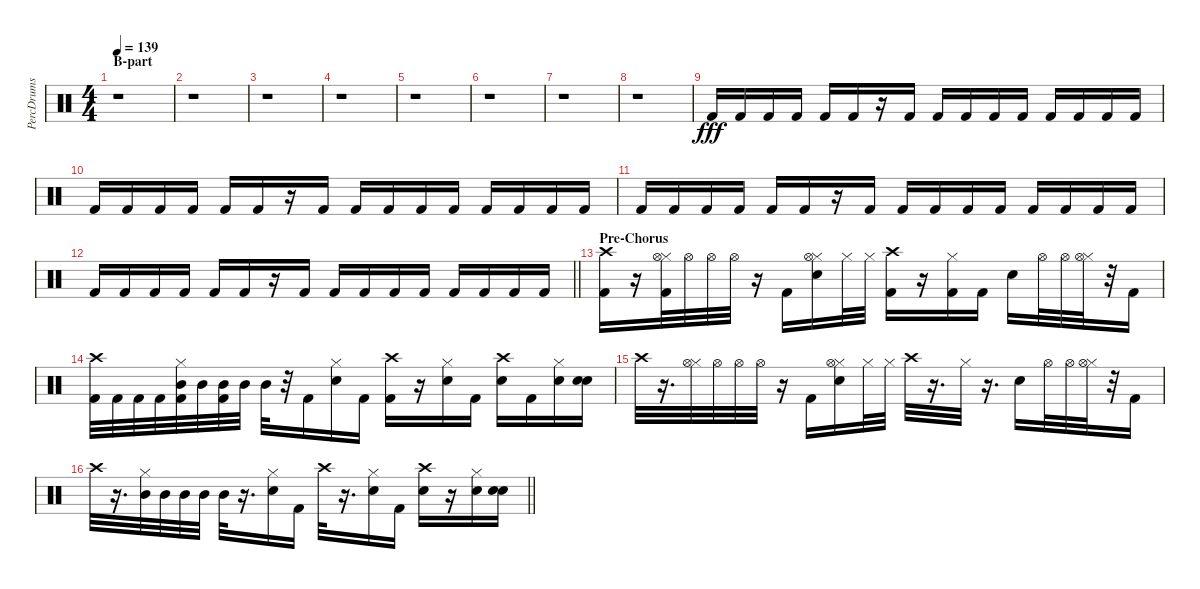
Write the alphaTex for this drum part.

\track ("PercDrums" "PercDrums") {instrument percussion}
\staff {score}
\articulation defaults
\ts (4 4)
\section ("" "B-part")
\tempo 139
\clef neutral
\ks c
r.1{dy fff} |
r.1 |
r.1 |
r.1 |
r.1 |
r.1 |
r.1 |
r.1 |
"Kick (hit) 2".16 "Kick (hit) 2".16 "Kick (hit) 2".16 "Kick (hit) 2".16 "Kick (hit) 2".16 "Kick (hit) 2".16 r.16 "Kick (hit) 2".16 "Kick (hit) 2".16 "Kick (hit) 2".16 "Kick (hit) 2".16 "Kick (hit) 2".16 "Kick (hit) 2".16 "Kick (hit) 2".16 "Kick (hit) 2".16 "Kick (hit) 2".16 |
"Kick (hit) 2".16 "Kick (hit) 2".16 "Kick (hit) 2".16 "Kick (hit) 2".16 "Kick (hit) 2".16 "Kick (hit) 2".16 r.16 "Kick (hit) 2".16 "Kick (hit) 2".16 "Kick (hit) 2".16 "Kick (hit) 2".16 "Kick (hit) 2".16 "Kick (hit) 2".16 "Kick (hit) 2".16 "Kick (hit) 2".16 "Kick (hit) 2".16 |
"Kick (hit) 2".16 "Kick (hit) 2".16 "Kick (hit) 2".16 "Kick (hit) 2".16 "Kick (hit) 2".16 "Kick (hit) 2".16 r.16 "Kick (hit) 2".16 "Kick (hit) 2".16 "Kick (hit) 2".16 "Kick (hit) 2".16 "Kick (hit) 2".16 "Kick (hit) 2".16 "Kick (hit) 2".16 "Kick (hit) 2".16 "Kick (hit) 2".16 |
\barLineRight lightlight "Kick (hit) 2".16 "Kick (hit) 2".16 "Kick (hit) 2".16 "Kick (hit) 2".16 "Kick (hit) 2".16 "Kick (hit) 2".16
r.16 "Kick (hit) 2".16 "Kick (hit) 2".16 "Kick (hit) 2".16 "Kick (hit) 2".16 "Kick (hit) 2".16 "Kick (hit) 2".16 "Kick (hit) 2".16 "Kick (hit) 2".16 "Kick (hit) 2".16 |
\section ("" "Pre-Chorus")
("Kick (hit) 2" "Crash high (hit)").16 r.16 ("Kick (hit) 2" "Hi-Hat (closed)" "Hi-Hat (open)").32 "Hi-Hat (open)".32 "Hi-Hat (open)".32 "Hi-Hat (open)".32 r.16 "Kick (hit) 2".16 ("Snare (hit) 2" "Hi-Hat (closed)" "Hi-Hat (open)").16 "Hi-Hat (closed)".32 "Hi-Hat (closed)".32 ("Kick (hit) 2" "Crash high (hit)").16 r.16 ("Kick (hit) 2" "Hi-Hat (closed)").16 "Kick (hit) 2".16 "Snare (hit) 2".16 "Hi-Hat (open)".32 "Hi-Hat (open)".32 ("Hi-Hat (closed)" "Hi-Hat (open)").32 r.32 "Kick (hit) 2".16 |
("Kick (hit) 2" "Crash high (hit)").32 "Kick (hit) 2".32 "Kick (hit) 2".32 "Kick (hit) 2".32 ("Kick (hit) 2" "Hi-Hat (closed)" "Mid Tom (hit)").32 "Mid Tom (hit)".32 ("Kick (hit) 2" "Mid Tom (hit)").32 "Mid Tom (hit)".32 "Mid Tom (hit)".32 r.32 "Kick (hit) 2".16 ("Snare (hit) 2" "Hi-Hat (closed)").16 "Kick (hit) 2".16 ("Kick (hit) 2" "Crash high (hit)").16 r.16 ("Snare (hit) 2" "Hi-Hat (closed)").16 "Kick (hit) 2".16 ("Snare (hit) 2" "Crash high (hit)").16 "Kick (hit) 2".16 ("Snare (hit) 2" "Hi-Hat (closed)").16 ("Snare (hit) 2" "Snare (hit) 2").16 |
"Crash high (hit)".32 r.16{d} ("Hi-Hat (closed)" "Hi-Hat (open)").32 "Hi-Hat (open)".32 "Hi-Hat (open)".32 "Hi-Hat (open)".32 r.16 "Kick (hit) 2".16 ("Snare (hit) 2" "Hi-Hat (closed)" "Hi-Hat (open)").16 "Hi-Hat (closed)".32 "Hi-Hat (closed)".32 "Crash high (hit)".32 r.16{d} "Hi-Hat (closed)".32 r.16{d} "Snare (hit) 2".16 "Hi-Hat (open)".32 "Hi-Hat (open)".32 ("Hi-Hat (closed)" "Hi-Hat (open)").32 r.32 "Kick (hit) 2".16 |
\barLineRight lightlight "Crash high (hit)".32
r.16{d} ("Hi-Hat (closed)" "Mid Tom (hit)").32 "Mid Tom (hit)".32 "Mid Tom (hit)".32 "Mid Tom (hit)".32 "Mid Tom (hit)".32 r.16{d} ("Snare (hit) 2" "Hi-Hat (closed)").16 "Kick (hit) 2".16 "Crash high (hit)".32 r.16{d} ("Snare (hit) 2" "Hi-Hat (closed)").16 "Kick (hit) 2".16 ("Snare (hit) 2" "Crash high (hit)").16 r.16 ("Snare (hit) 2" "Hi-Hat (closed)").16 ("Snare (hit) 2" "Snare (hit) 2").16
